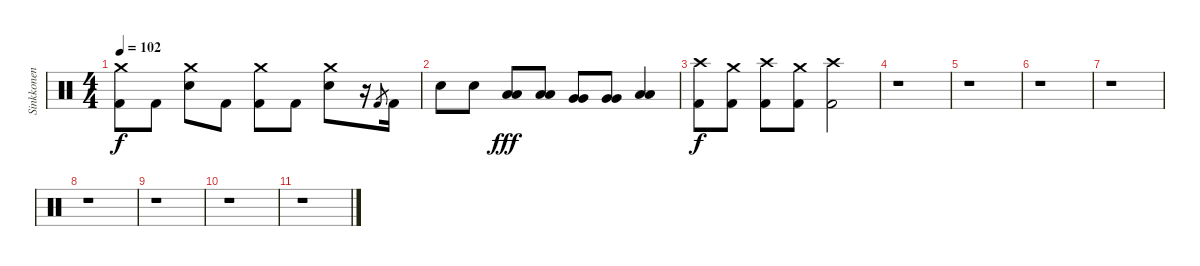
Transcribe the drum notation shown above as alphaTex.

\track ("Sinkkonen" "Sinkkonen") {instrument percussion}
\staff {score}
\articulation defaults
\ts (4 4)
\tempo 102
\clef neutral
\ks c
("Kick (hit) 2" "Crash medium (hit)").8{dy f} "Kick (hit) 2".8 ("Crash medium (hit)" "Snare (hit) 2").8 "Kick (hit) 2".8 ("Kick (hit) 2" "Crash medium (hit)").8 "Kick (hit) 2".8 ("Crash medium (hit)" "Snare (hit) 2").8 r.16 "Kick (hit) 2".8{gr} "Kick (hit) 2".16 |
"Snare (hit) 2".8 "Snare (hit) 2".8 ("Low Tom (hit)" "Low Tom (hit)").8{dy fff} ("Low Tom (hit)" "Low Tom (hit)").8 ("Very Low Tom (hit)" "Very Low Tom (hit)").8 ("Very Low Tom (hit)" "Very Low Tom (hit)").8 ("Low Floor Tom (hit)" "Low Floor Tom (hit)").4 |
("Kick (hit) 2" "Crash high (hit)").8{dy f} ("Kick (hit) 2" "Crash medium (hit)").8 ("Kick (hit) 2" "Crash high (hit)").8 ("Kick (hit) 2" "Crash medium (hit)").8 ("Kick (hit) 2" "Crash high (hit)").2 |
r.1 |
r.1 |
r.1 |
r.1 |
r.1 |
r.1 |
r.1 |
r.1
